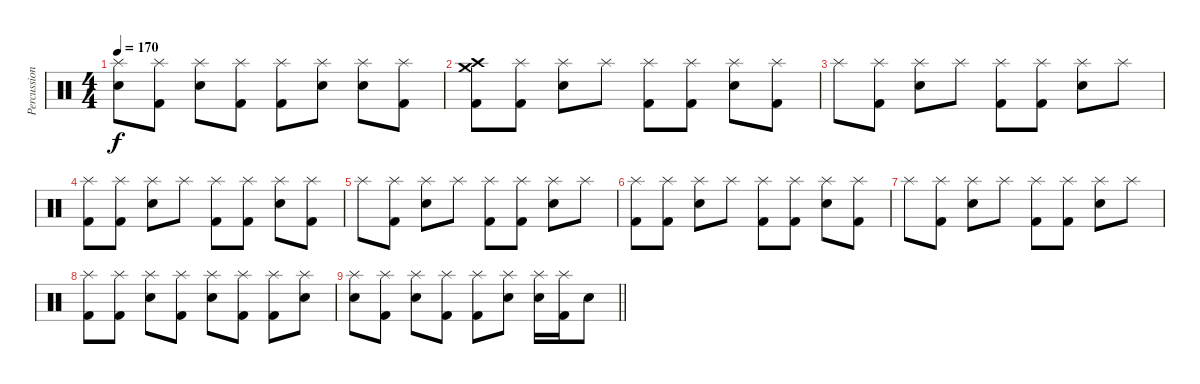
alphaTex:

\track ("Percussion" "Percussion") {instrument percussion}
\staff {score}
\articulation defaults
\ts (4 4)
\tempo 170
\clef neutral
\ks c
("Splash (hit)" "Electric Snare (hit)").8{dy f} ("Splash (hit)" "Kick (hit) 2").8 ("Splash (hit)" "Electric Snare (hit)").8 ("Splash (hit)" "Kick (hit) 2").8 ("Splash (hit)" "Kick (hit) 2").8 ("Splash (hit)" "Electric Snare (hit)").8 ("Splash (hit)" "Electric Snare (hit)").8 ("Splash (hit)" "Kick (hit) 2").8 |
("Crash medium (hit)" "Crash high (hit)" "Kick (hit) 2").8 ("Splash (hit)" "Kick (hit) 2").8 ("Splash (hit)" "Electric Snare (hit)").8 "Splash (hit)".8 ("Splash (hit)" "Kick (hit) 2").8 ("Splash (hit)" "Kick (hit) 2").8 ("Splash (hit)" "Electric Snare (hit)").8 ("Splash (hit)" "Kick (hit) 2").8 |
"Splash (hit)".8 ("Splash (hit)" "Kick (hit) 2").8 ("Splash (hit)" "Electric Snare (hit)").8 "Splash (hit)".8 ("Splash (hit)" "Kick (hit) 2").8 ("Splash (hit)" "Kick (hit) 2").8 ("Splash (hit)" "Electric Snare (hit)").8 "Splash (hit)".8 |
("Splash (hit)" "Kick (hit) 2").8 ("Splash (hit)" "Kick (hit) 2").8 ("Splash (hit)" "Electric Snare (hit)").8 "Splash (hit)".8 ("Splash (hit)" "Kick (hit) 2").8 ("Splash (hit)" "Kick (hit) 2").8 ("Splash (hit)" "Electric Snare (hit)").8 ("Splash (hit)" "Kick (hit) 2").8 |
"Splash (hit)".8 ("Splash (hit)" "Kick (hit) 2").8 ("Splash (hit)" "Electric Snare (hit)").8 "Splash (hit)".8 ("Splash (hit)" "Kick (hit) 2").8 ("Splash (hit)" "Kick (hit) 2").8 ("Splash (hit)" "Electric Snare (hit)").8 "Splash (hit)".8 |
("Splash (hit)" "Kick (hit) 2").8 ("Splash (hit)" "Kick (hit) 2").8 ("Splash (hit)" "Electric Snare (hit)").8 "Splash (hit)".8 ("Splash (hit)" "Kick (hit) 2").8 ("Splash (hit)" "Kick (hit) 2").8 ("Splash (hit)" "Electric Snare (hit)").8 ("Splash (hit)" "Kick (hit) 2").8 |
"Splash (hit)".8 ("Splash (hit)" "Kick (hit) 2").8 ("Splash (hit)" "Electric Snare (hit)").8 "Splash (hit)".8 ("Splash (hit)" "Kick (hit) 2").8 ("Splash (hit)" "Kick (hit) 2").8 ("Splash (hit)" "Electric Snare (hit)").8 "Splash (hit)".8 |
("Splash (hit)" "Kick (hit) 2").8 ("Splash (hit)" "Kick (hit) 2").8 ("Splash (hit)" "Electric Snare (hit)").8 ("Splash (hit)" "Kick (hit) 2").8 ("Splash (hit)" "Electric Snare (hit)").8 ("Splash (hit)" "Kick (hit) 2").8 ("Splash (hit)" "Kick (hit) 2").8 ("Splash (hit)" "Electric Snare (hit)").8 |
\barLineRight lightlight
("Splash (hit)" "Electric Snare (hit)").8 ("Splash (hit)" "Kick (hit) 2").8 ("Splash (hit)" "Electric Snare (hit)").8 ("Splash (hit)" "Kick (hit) 2").8 ("Splash (hit)" "Kick (hit) 2").8 ("Splash (hit)" "Electric Snare (hit)").8 ("Splash (hit)" "Electric Snare (hit)").16 ("Splash (hit)" "Kick (hit) 2").16 "Electric Snare (hit)".8
